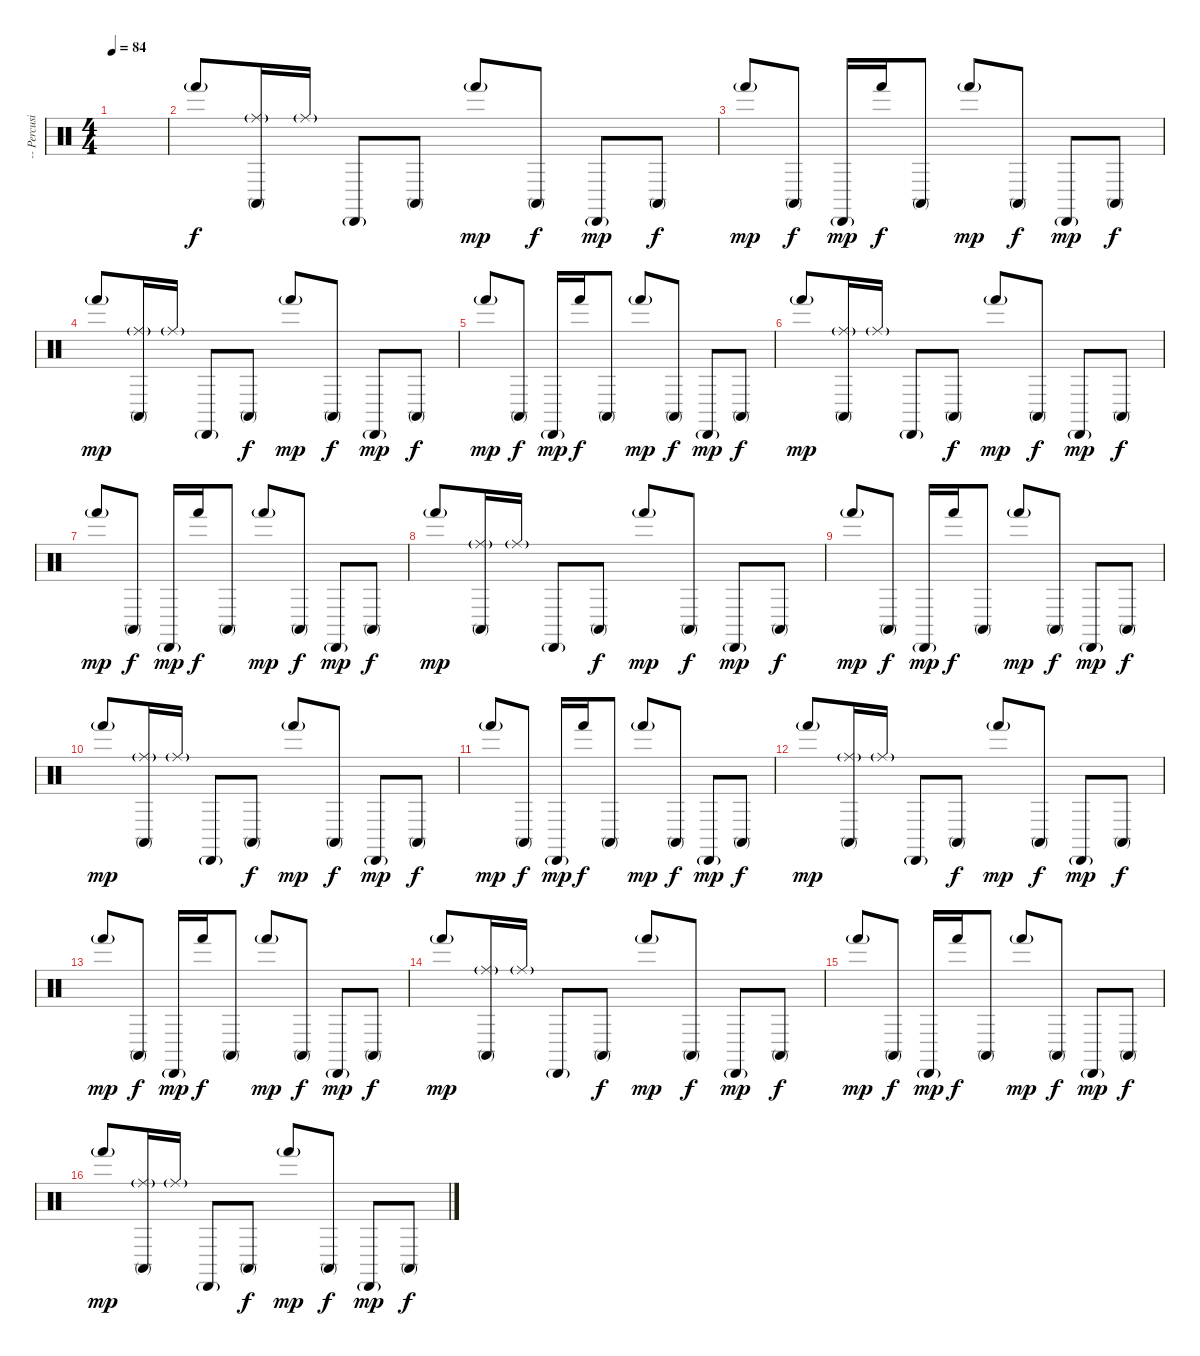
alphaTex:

\track ("-- Percusion Kit" "-- Percusi") {instrument percussion}
\staff {score}
\articulation defaults
\ts (4 4)
\tempo 84
\clef neutral
\ks c
|
"Hand (hit)"{g}.8 ("Ride (middle)"{g} "Conga high (mute)").16 "Ride (middle)"{g}.16 "Cabasa (hit)"{g}.8 "Conga high (mute)".8{dy f} "Hand (hit)"{g}.8{dy mp} "Conga high (mute)".8{dy f} "Cabasa (hit)"{g}.8{dy mp} "Conga high (mute)".8{dy f} |
"Hand (hit)"{g}.8{dy mp} "Conga high (mute)".8{dy f} "Cabasa (hit)"{g}.16{dy mp} "Hand (hit)".16{dy f} "Conga high (mute)".8 "Hand (hit)"{g}.8{dy mp} "Conga high (mute)".8{dy f} "Cabasa (hit)"{g}.8{dy mp} "Conga high (mute)".8{dy f} |
"Hand (hit)"{g}.8{dy mp} ("Ride (middle)"{g} "Conga high (mute)").16 "Ride (middle)"{g}.16 "Cabasa (hit)"{g}.8 "Conga high (mute)".8{dy f} "Hand (hit)"{g}.8{dy mp} "Conga high (mute)".8{dy f} "Cabasa (hit)"{g}.8{dy mp} "Conga high (mute)".8{dy f} |
"Hand (hit)"{g}.8{dy mp} "Conga high (mute)".8{dy f} "Cabasa (hit)"{g}.16{dy mp} "Hand (hit)".16{dy f} "Conga high (mute)".8 "Hand (hit)"{g}.8{dy mp} "Conga high (mute)".8{dy f} "Cabasa (hit)"{g}.8{dy mp} "Conga high (mute)".8{dy f} |
"Hand (hit)"{g}.8{dy mp} ("Ride (middle)"{g} "Conga high (mute)").16 "Ride (middle)"{g}.16 "Cabasa (hit)"{g}.8 "Conga high (mute)".8{dy f} "Hand (hit)"{g}.8{dy mp} "Conga high (mute)".8{dy f} "Cabasa (hit)"{g}.8{dy mp} "Conga high (mute)".8{dy f} |
"Hand (hit)"{g}.8{dy mp} "Conga high (mute)".8{dy f} "Cabasa (hit)"{g}.16{dy mp} "Hand (hit)".16{dy f} "Conga high (mute)".8 "Hand (hit)"{g}.8{dy mp} "Conga high (mute)".8{dy f} "Cabasa (hit)"{g}.8{dy mp} "Conga high (mute)".8{dy f} |
"Hand (hit)"{g}.8{dy mp} ("Ride (middle)"{g} "Conga high (mute)").16 "Ride (middle)"{g}.16 "Cabasa (hit)"{g}.8 "Conga high (mute)".8{dy f} "Hand (hit)"{g}.8{dy mp} "Conga high (mute)".8{dy f} "Cabasa (hit)"{g}.8{dy mp} "Conga high (mute)".8{dy f} |
"Hand (hit)"{g}.8{dy mp} "Conga high (mute)".8{dy f} "Cabasa (hit)"{g}.16{dy mp} "Hand (hit)".16{dy f} "Conga high (mute)".8 "Hand (hit)"{g}.8{dy mp} "Conga high (mute)".8{dy f} "Cabasa (hit)"{g}.8{dy mp} "Conga high (mute)".8{dy f} |
"Hand (hit)"{g}.8{dy mp} ("Ride (middle)"{g} "Conga high (mute)").16 "Ride (middle)"{g}.16 "Cabasa (hit)"{g}.8 "Conga high (mute)".8{dy f} "Hand (hit)"{g}.8{dy mp} "Conga high (mute)".8{dy f} "Cabasa (hit)"{g}.8{dy mp} "Conga high (mute)".8{dy f} |
"Hand (hit)"{g}.8{dy mp} "Conga high (mute)".8{dy f} "Cabasa (hit)"{g}.16{dy mp} "Hand (hit)".16{dy f} "Conga high (mute)".8 "Hand (hit)"{g}.8{dy mp} "Conga high (mute)".8{dy f} "Cabasa (hit)"{g}.8{dy mp} "Conga high (mute)".8{dy f} |
"Hand (hit)"{g}.8{dy mp} ("Ride (middle)"{g} "Conga high (mute)").16 "Ride (middle)"{g}.16 "Cabasa (hit)"{g}.8 "Conga high (mute)".8{dy f} "Hand (hit)"{g}.8{dy mp} "Conga high (mute)".8{dy f} "Cabasa (hit)"{g}.8{dy mp} "Conga high (mute)".8{dy f} |
"Hand (hit)"{g}.8{dy mp} "Conga high (mute)".8{dy f} "Cabasa (hit)"{g}.16{dy mp} "Hand (hit)".16{dy f} "Conga high (mute)".8 "Hand (hit)"{g}.8{dy mp} "Conga high (mute)".8{dy f} "Cabasa (hit)"{g}.8{dy mp} "Conga high (mute)".8{dy f} |
"Hand (hit)"{g}.8{dy mp} ("Ride (middle)"{g} "Conga high (mute)").16 "Ride (middle)"{g}.16 "Cabasa (hit)"{g}.8 "Conga high (mute)".8{dy f} "Hand (hit)"{g}.8{dy mp} "Conga high (mute)".8{dy f} "Cabasa (hit)"{g}.8{dy mp} "Conga high (mute)".8{dy f} |
"Hand (hit)"{g}.8{dy mp} "Conga high (mute)".8{dy f} "Cabasa (hit)"{g}.16{dy mp} "Hand (hit)".16{dy f} "Conga high (mute)".8 "Hand (hit)"{g}.8{dy mp} "Conga high (mute)".8{dy f} "Cabasa (hit)"{g}.8{dy mp} "Conga high (mute)".8{dy f} |
"Hand (hit)"{g}.8{dy mp} ("Ride (middle)"{g} "Conga high (mute)").16 "Ride (middle)"{g}.16 "Cabasa (hit)"{g}.8 "Conga high (mute)".8{dy f} "Hand (hit)"{g}.8{dy mp} "Conga high (mute)".8{dy f} "Cabasa (hit)"{g}.8{dy mp} "Conga high (mute)".8{dy f}
